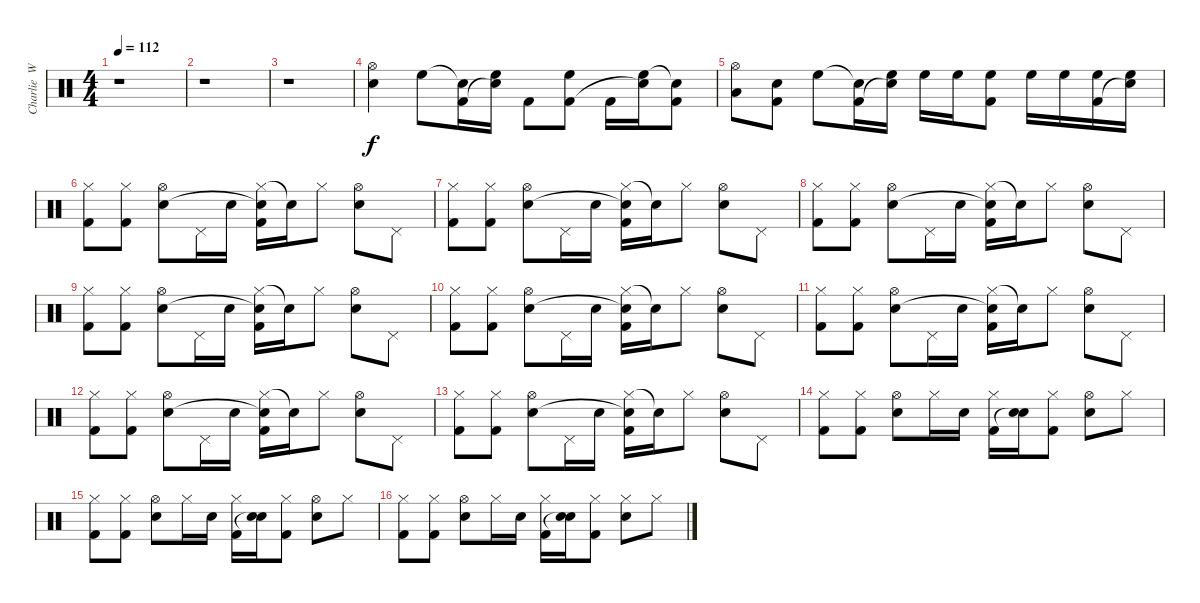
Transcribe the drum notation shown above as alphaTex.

\track ("Charlie  Watts" "Charlie  W") {instrument percussion}
\staff {score}
\articulation defaults
\ts (4 4)
\tempo 112
\clef neutral
\ks c
r.1{dy f} |
r.1 |
r.1 |
("Hi-Hat (open)" "Snare (hit) 2").4 "High Floor Tom (hit)".8 ("Snare (hit)"{t} "Kick (hit) 2").16 ("High Floor Tom (hit)" "Snare (hit)"{t}).16 "Kick (hit) 2".8 ("High Floor Tom (hit)" "Kick (hit) 2").8 "Kick (hit) 2".16 ("High Floor Tom (hit)" "Snare (hit)"{t}).16 ("Snare (hit)"{t} "Kick (hit) 2").8 |
("Hi-Hat (open)" "Low Floor Tom (hit)").8 ("Snare (hit) 2" "Kick (hit) 2").8 "High Floor Tom (hit)".8 ("Snare (hit)"{t} "Kick (hit) 2").16 ("High Floor Tom (hit)" "Snare (hit)"{t}).16 "High Floor Tom (hit)".16 "High Floor Tom (hit)".16 ("High Floor Tom (hit)" "Kick (hit) 2").8 "High Floor Tom (hit)".16 "High Floor Tom (hit)".16 ("High Floor Tom (hit)" "Kick (hit) 2").16 ("High Floor Tom (hit)" "Snare (hit)"{t}).16 |
("Hi-Hat (closed)" "Kick (hit) 2").8 ("Hi-Hat (closed)" "Kick (hit) 2").8 ("Hi-Hat (open)" "Snare (hit) 2").8 "Pedal Hi-Hat (hit)".16 "Snare (hit) 2".16 ("Hi-Hat (closed)" "Snare (hit)"{t} "Kick (hit) 2").16 "Snare (hit)"{t}.16 "Hi-Hat (closed)".8 ("Hi-Hat (open)" "Snare (hit) 2").8 "Pedal Hi-Hat (hit)".8 |
("Hi-Hat (closed)" "Kick (hit) 2").8 ("Hi-Hat (closed)" "Kick (hit) 2").8 ("Hi-Hat (open)" "Snare (hit) 2").8 "Pedal Hi-Hat (hit)".16 "Snare (hit) 2".16 ("Hi-Hat (closed)" "Snare (hit)"{t} "Kick (hit) 2").16 "Snare (hit)"{t}.16 "Hi-Hat (closed)".8 ("Hi-Hat (open)" "Snare (hit) 2").8 "Pedal Hi-Hat (hit)".8 |
("Hi-Hat (closed)" "Kick (hit) 2").8 ("Hi-Hat (closed)" "Kick (hit) 2").8 ("Hi-Hat (open)" "Snare (hit) 2").8 "Pedal Hi-Hat (hit)".16 "Snare (hit) 2".16 ("Hi-Hat (closed)" "Snare (hit)"{t} "Kick (hit) 2").16 "Snare (hit)"{t}.16 "Hi-Hat (closed)".8 ("Hi-Hat (open)" "Snare (hit) 2").8 "Pedal Hi-Hat (hit)".8 |
("Hi-Hat (closed)" "Kick (hit) 2").8 ("Hi-Hat (closed)" "Kick (hit) 2").8 ("Hi-Hat (open)" "Snare (hit) 2").8 "Pedal Hi-Hat (hit)".16 "Snare (hit) 2".16 ("Hi-Hat (closed)" "Snare (hit)"{t} "Kick (hit) 2").16 "Snare (hit)"{t}.16 "Hi-Hat (closed)".8 ("Hi-Hat (open)" "Snare (hit) 2").8 "Pedal Hi-Hat (hit)".8 |
("Hi-Hat (closed)" "Kick (hit) 2").8 ("Hi-Hat (closed)" "Kick (hit) 2").8 ("Hi-Hat (open)" "Snare (hit) 2").8 "Pedal Hi-Hat (hit)".16 "Snare (hit) 2".16 ("Hi-Hat (closed)" "Snare (hit)"{t} "Kick (hit) 2").16 "Snare (hit)"{t}.16 "Hi-Hat (closed)".8 ("Hi-Hat (open)" "Snare (hit) 2").8 "Pedal Hi-Hat (hit)".8 |
("Hi-Hat (closed)" "Kick (hit) 2").8 ("Hi-Hat (closed)" "Kick (hit) 2").8 ("Hi-Hat (open)" "Snare (hit) 2").8 "Pedal Hi-Hat (hit)".16 "Snare (hit) 2".16 ("Hi-Hat (closed)" "Snare (hit)"{t} "Kick (hit) 2").16 "Snare (hit)"{t}.16 "Hi-Hat (closed)".8 ("Hi-Hat (open)" "Snare (hit) 2").8 "Pedal Hi-Hat (hit)".8 |
("Hi-Hat (closed)" "Kick (hit) 2").8 ("Hi-Hat (closed)" "Kick (hit) 2").8 ("Hi-Hat (open)" "Snare (hit) 2").8 "Pedal Hi-Hat (hit)".16 "Snare (hit) 2".16 ("Hi-Hat (closed)" "Snare (hit)"{t} "Kick (hit) 2").16 "Snare (hit)"{t}.16 "Hi-Hat (closed)".8 ("Hi-Hat (open)" "Snare (hit) 2").8 "Pedal Hi-Hat (hit)".8 |
("Hi-Hat (closed)" "Kick (hit) 2").8 ("Hi-Hat (closed)" "Kick (hit) 2").8 ("Hi-Hat (open)" "Snare (hit) 2").8 "Pedal Hi-Hat (hit)".16 "Snare (hit) 2".16 ("Hi-Hat (closed)" "Snare (hit)"{t} "Kick (hit) 2").16 "Snare (hit)"{t}.16 "Hi-Hat (closed)".8 ("Hi-Hat (open)" "Snare (hit) 2").8 "Pedal Hi-Hat (hit)".8 |
("Hi-Hat (closed)" "Kick (hit) 2").8 ("Hi-Hat (closed)" "Kick (hit) 2").8 ("Hi-Hat (open)" "Snare (hit) 2").8 "Hi-Hat (closed)".16 "Snare (hit) 2".16 ("Hi-Hat (closed)" "Kick (hit) 2").16 ("Snare (hit) 2" "Snare (hit)"{t}).16 ("Hi-Hat (closed)" "Kick (hit) 2").8 ("Hi-Hat (open)" "Snare (hit) 2").8 "Hi-Hat (closed)".8 |
("Hi-Hat (closed)" "Kick (hit) 2").8 ("Hi-Hat (closed)" "Kick (hit) 2").8 ("Hi-Hat (open)" "Snare (hit) 2").8 "Hi-Hat (closed)".16 "Snare (hit) 2".16 ("Hi-Hat (closed)" "Kick (hit) 2").16 ("Snare (hit) 2" "Snare (hit)"{t}).16 ("Hi-Hat (closed)" "Kick (hit) 2").8 ("Hi-Hat (open)" "Snare (hit) 2").8 "Hi-Hat (closed)".8 |
("Hi-Hat (closed)" "Kick (hit) 2").8 ("Hi-Hat (closed)" "Kick (hit) 2").8 ("Hi-Hat (open)" "Snare (hit) 2").8 "Hi-Hat (closed)".16 "Snare (hit) 2".16 ("Hi-Hat (closed)" "Kick (hit) 2").16 ("Snare (hit) 2" "Snare (hit)"{t}).16 ("Hi-Hat (closed)" "Kick (hit) 2").8 ("Hi-Hat (closed)" "Snare (hit) 2").8 "Hi-Hat (closed)".8
